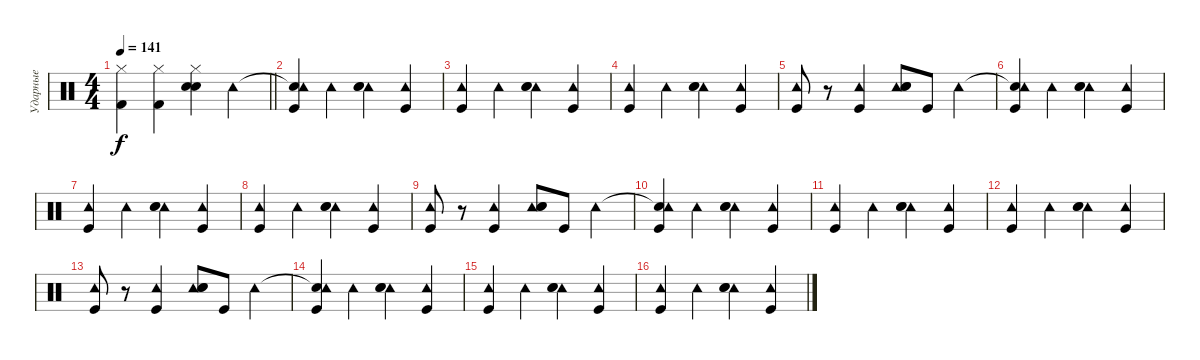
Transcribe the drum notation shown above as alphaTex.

\track ("Ударные" "Ударные") {instrument percussion}
\staff {score}
\articulation defaults
\ts (4 4)
\tempo 141
\clef neutral
\barLineRight lightlight
\ks c
("Kick (hit) 2" "Hi-Hat (closed)").4{dy f} ("Kick (hit) 2" "Hi-Hat (closed)").4 ("Electric Snare (hit)" "Snare (hit) 2" "Hi-Hat (closed)").4 "Tambourine (hit)".4 |
("Snare (hit)"{t} "Tambourine (hit)" "Kick (hit)").4 "Tambourine (hit)".4 ("Tambourine (hit)" "Snare (hit) 2" "Electric Snare (hit)").4 ("Tambourine (hit)" "Kick (hit)").4 |
("Tambourine (hit)" "Kick (hit)").4 "Tambourine (hit)".4 ("Tambourine (hit)" "Snare (hit) 2" "Electric Snare (hit)").4 ("Tambourine (hit)" "Kick (hit)").4 |
("Tambourine (hit)" "Kick (hit)").4 "Tambourine (hit)".4 ("Tambourine (hit)" "Snare (hit) 2" "Electric Snare (hit)").4 ("Tambourine (hit)" "Kick (hit)").4 |
("Tambourine (hit)" "Kick (hit)").8 r.8 ("Tambourine (hit)" "Kick (hit)").4 ("Tambourine (hit)" "Snare (hit) 2" "Electric Snare (hit)").8 "Kick (hit)".8 "Tambourine (hit)".4 |
("Snare (hit)"{t} "Tambourine (hit)" "Kick (hit)").4 "Tambourine (hit)".4 ("Tambourine (hit)" "Snare (hit) 2" "Electric Snare (hit)").4 ("Tambourine (hit)" "Kick (hit)").4 |
("Tambourine (hit)" "Kick (hit)").4 "Tambourine (hit)".4 ("Tambourine (hit)" "Snare (hit) 2" "Electric Snare (hit)").4 ("Tambourine (hit)" "Kick (hit)").4 |
("Tambourine (hit)" "Kick (hit)").4 "Tambourine (hit)".4 ("Tambourine (hit)" "Snare (hit) 2" "Electric Snare (hit)").4 ("Tambourine (hit)" "Kick (hit)").4 |
("Tambourine (hit)" "Kick (hit)").8 r.8 ("Tambourine (hit)" "Kick (hit)").4 ("Tambourine (hit)" "Snare (hit) 2" "Electric Snare (hit)").8 "Kick (hit)".8 "Tambourine (hit)".4 |
("Snare (hit)"{t} "Tambourine (hit)" "Kick (hit)").4 "Tambourine (hit)".4 ("Tambourine (hit)" "Snare (hit) 2" "Electric Snare (hit)").4 ("Tambourine (hit)" "Kick (hit)").4 |
("Tambourine (hit)" "Kick (hit)").4 "Tambourine (hit)".4 ("Tambourine (hit)" "Snare (hit) 2" "Electric Snare (hit)").4 ("Tambourine (hit)" "Kick (hit)").4 |
("Tambourine (hit)" "Kick (hit)").4 "Tambourine (hit)".4 ("Tambourine (hit)" "Snare (hit) 2" "Electric Snare (hit)").4 ("Tambourine (hit)" "Kick (hit)").4 |
("Tambourine (hit)" "Kick (hit)").8 r.8 ("Tambourine (hit)" "Kick (hit)").4 ("Tambourine (hit)" "Snare (hit) 2" "Electric Snare (hit)").8 "Kick (hit)".8 "Tambourine (hit)".4 |
("Snare (hit)"{t} "Tambourine (hit)" "Kick (hit)").4 "Tambourine (hit)".4 ("Tambourine (hit)" "Snare (hit) 2" "Electric Snare (hit)").4 ("Tambourine (hit)" "Kick (hit)").4 |
("Tambourine (hit)" "Kick (hit)").4 "Tambourine (hit)".4 ("Tambourine (hit)" "Snare (hit) 2" "Electric Snare (hit)").4 ("Tambourine (hit)" "Kick (hit)").4 |
("Tambourine (hit)" "Kick (hit)").4 "Tambourine (hit)".4 ("Tambourine (hit)" "Snare (hit) 2" "Electric Snare (hit)").4 ("Tambourine (hit)" "Kick (hit)").4
